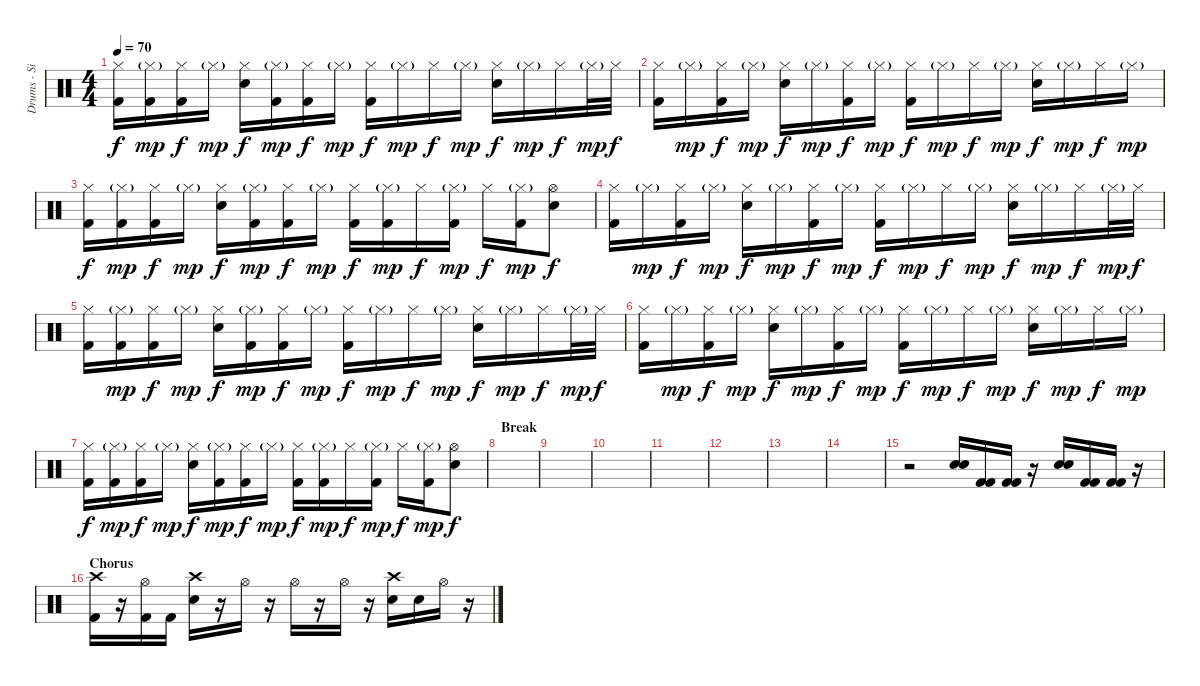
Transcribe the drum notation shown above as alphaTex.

\track ("Drums - Si" "Drums - Si") {instrument percussion}
\staff {score}
\articulation defaults
\ts (4 4)
\tempo 70
\clef neutral
\ks c
("Hi-Hat (closed)" "Kick (hit) 2").16{dy f} ("Hi-Hat (closed)"{g} "Kick (hit) 2").16{dy mp} ("Hi-Hat (closed)" "Kick (hit) 2").16{dy f} "Hi-Hat (closed)"{g}.16{dy mp} ("Hi-Hat (closed)" "Snare (hit) 2").16{dy f} ("Hi-Hat (closed)"{g} "Kick (hit) 2").16{dy mp} ("Hi-Hat (closed)" "Kick (hit) 2").16{dy f} "Hi-Hat (closed)"{g}.16{dy mp} ("Hi-Hat (closed)" "Kick (hit) 2").16{dy f} "Hi-Hat (closed)"{g}.16{dy mp} "Hi-Hat (closed)".16{dy f} "Hi-Hat (closed)"{g}.16{dy mp} ("Hi-Hat (closed)" "Snare (hit) 2").16{dy f} "Hi-Hat (closed)"{g}.16{dy mp} "Hi-Hat (closed)".16{dy f} "Hi-Hat (closed)"{g}.32{dy mp} "Hi-Hat (closed)".32{dy f} |
("Hi-Hat (closed)" "Kick (hit) 2").16 "Hi-Hat (closed)"{g}.16{dy mp} ("Hi-Hat (closed)" "Kick (hit) 2").16{dy f} "Hi-Hat (closed)"{g}.16{dy mp} ("Hi-Hat (closed)" "Snare (hit) 2").16{dy f} "Hi-Hat (closed)"{g}.16{dy mp} ("Hi-Hat (closed)" "Kick (hit) 2").16{dy f} "Hi-Hat (closed)"{g}.16{dy mp} ("Hi-Hat (closed)" "Kick (hit) 2").16{dy f} "Hi-Hat (closed)"{g}.16{dy mp} "Hi-Hat (closed)".16{dy f} "Hi-Hat (closed)"{g}.16{dy mp} ("Hi-Hat (closed)" "Snare (hit) 2").16{dy f} "Hi-Hat (closed)"{g}.16{dy mp} "Hi-Hat (closed)".16{dy f} "Hi-Hat (closed)"{g}.16{dy mp} |
("Hi-Hat (closed)" "Kick (hit) 2").16{dy f} ("Hi-Hat (closed)"{g} "Kick (hit) 2").16{dy mp} ("Hi-Hat (closed)" "Kick (hit) 2").16{dy f} "Hi-Hat (closed)"{g}.16{dy mp} ("Hi-Hat (closed)" "Snare (hit) 2").16{dy f} ("Hi-Hat (closed)"{g} "Kick (hit) 2").16{dy mp} ("Hi-Hat (closed)" "Kick (hit) 2").16{dy f} "Hi-Hat (closed)"{g}.16{dy mp} ("Hi-Hat (closed)" "Kick (hit) 2").16{dy f} ("Hi-Hat (closed)"{g} "Kick (hit) 2").16{dy mp} "Hi-Hat (closed)".16{dy f} ("Hi-Hat (closed)"{g} "Kick (hit) 2").16{dy mp} "Hi-Hat (closed)".16{dy f} ("Hi-Hat (closed)"{g} "Kick (hit) 2").16{dy mp} ("Hi-Hat (open)" "Snare (hit) 2").8{dy f} |
("Hi-Hat (closed)" "Kick (hit) 2").16 "Hi-Hat (closed)"{g}.16{dy mp} ("Hi-Hat (closed)" "Kick (hit) 2").16{dy f} "Hi-Hat (closed)"{g}.16{dy mp} ("Hi-Hat (closed)" "Snare (hit) 2").16{dy f} "Hi-Hat (closed)"{g}.16{dy mp} ("Hi-Hat (closed)" "Kick (hit) 2").16{dy f} "Hi-Hat (closed)"{g}.16{dy mp} ("Hi-Hat (closed)" "Kick (hit) 2").16{dy f} "Hi-Hat (closed)"{g}.16{dy mp} "Hi-Hat (closed)".16{dy f} "Hi-Hat (closed)"{g}.16{dy mp} ("Hi-Hat (closed)" "Snare (hit) 2").16{dy f} "Hi-Hat (closed)"{g}.16{dy mp} "Hi-Hat (closed)".16{dy f} "Hi-Hat (closed)"{g}.32{dy mp} "Hi-Hat (closed)".32{dy f} |
("Hi-Hat (closed)" "Kick (hit) 2").16 ("Hi-Hat (closed)"{g} "Kick (hit) 2").16{dy mp} ("Hi-Hat (closed)" "Kick (hit) 2").16{dy f} "Hi-Hat (closed)"{g}.16{dy mp} ("Hi-Hat (closed)" "Snare (hit) 2").16{dy f} ("Hi-Hat (closed)"{g} "Kick (hit) 2").16{dy mp} ("Hi-Hat (closed)" "Kick (hit) 2").16{dy f} "Hi-Hat (closed)"{g}.16{dy mp} ("Hi-Hat (closed)" "Kick (hit) 2").16{dy f} "Hi-Hat (closed)"{g}.16{dy mp} "Hi-Hat (closed)".16{dy f} "Hi-Hat (closed)"{g}.16{dy mp} ("Hi-Hat (closed)" "Snare (hit) 2").16{dy f} "Hi-Hat (closed)"{g}.16{dy mp} "Hi-Hat (closed)".16{dy f} "Hi-Hat (closed)"{g}.32{dy mp} "Hi-Hat (closed)".32{dy f} |
("Hi-Hat (closed)" "Kick (hit) 2").16 "Hi-Hat (closed)"{g}.16{dy mp} ("Hi-Hat (closed)" "Kick (hit) 2").16{dy f} "Hi-Hat (closed)"{g}.16{dy mp} ("Hi-Hat (closed)" "Snare (hit) 2").16{dy f} "Hi-Hat (closed)"{g}.16{dy mp} ("Hi-Hat (closed)" "Kick (hit) 2").16{dy f} "Hi-Hat (closed)"{g}.16{dy mp} ("Hi-Hat (closed)" "Kick (hit) 2").16{dy f} "Hi-Hat (closed)"{g}.16{dy mp} "Hi-Hat (closed)".16{dy f} "Hi-Hat (closed)"{g}.16{dy mp} ("Hi-Hat (closed)" "Snare (hit) 2").16{dy f} "Hi-Hat (closed)"{g}.16{dy mp} "Hi-Hat (closed)".16{dy f} "Hi-Hat (closed)"{g}.16{dy mp} |
("Hi-Hat (closed)" "Kick (hit) 2").16{dy f} ("Hi-Hat (closed)"{g} "Kick (hit) 2").16{dy mp} ("Hi-Hat (closed)" "Kick (hit) 2").16{dy f} "Hi-Hat (closed)"{g}.16{dy mp} ("Hi-Hat (closed)" "Snare (hit) 2").16{dy f} ("Hi-Hat (closed)"{g} "Kick (hit) 2").16{dy mp} ("Hi-Hat (closed)" "Kick (hit) 2").16{dy f} "Hi-Hat (closed)"{g}.16{dy mp} ("Hi-Hat (closed)" "Kick (hit) 2").16{dy f} ("Hi-Hat (closed)"{g} "Kick (hit) 2").16{dy mp} "Hi-Hat (closed)".16{dy f} ("Hi-Hat (closed)"{g} "Kick (hit) 2").16{dy mp} "Hi-Hat (closed)".16{dy f} ("Hi-Hat (closed)"{g} "Kick (hit) 2").16{dy mp} ("Hi-Hat (open)" "Snare (hit) 2").8{dy f} |
\section ("" "Break")
|
|
|
|
|
|
|
r.2 ("Snare (hit) 2" "Snare (hit) 2").16 ("Kick (hit) 2" "Kick (hit) 2").16 ("Kick (hit) 2" "Kick (hit) 2").16 r.16 ("Snare (hit) 2" "Snare (hit) 2").16 ("Kick (hit) 2" "Kick (hit) 2").16 ("Kick (hit) 2" "Kick (hit) 2").16 r.16 |
\section ("" "Chorus")
("Crash high (hit)" "Kick (hit) 2").16 r.16 ("Hi-Hat (open)" "Kick (hit) 2").16 "Kick (hit) 2".16 ("Crash high (hit)" "Snare (hit) 2").16 r.16 "Hi-Hat (open)".16 r.16 "Hi-Hat (open)".16 r.16 "Hi-Hat (open)".16 r.16 ("Crash high (hit)" "Snare (hit) 2").16 "Snare (hit) 2".16 "Hi-Hat (open)".16 r.16
